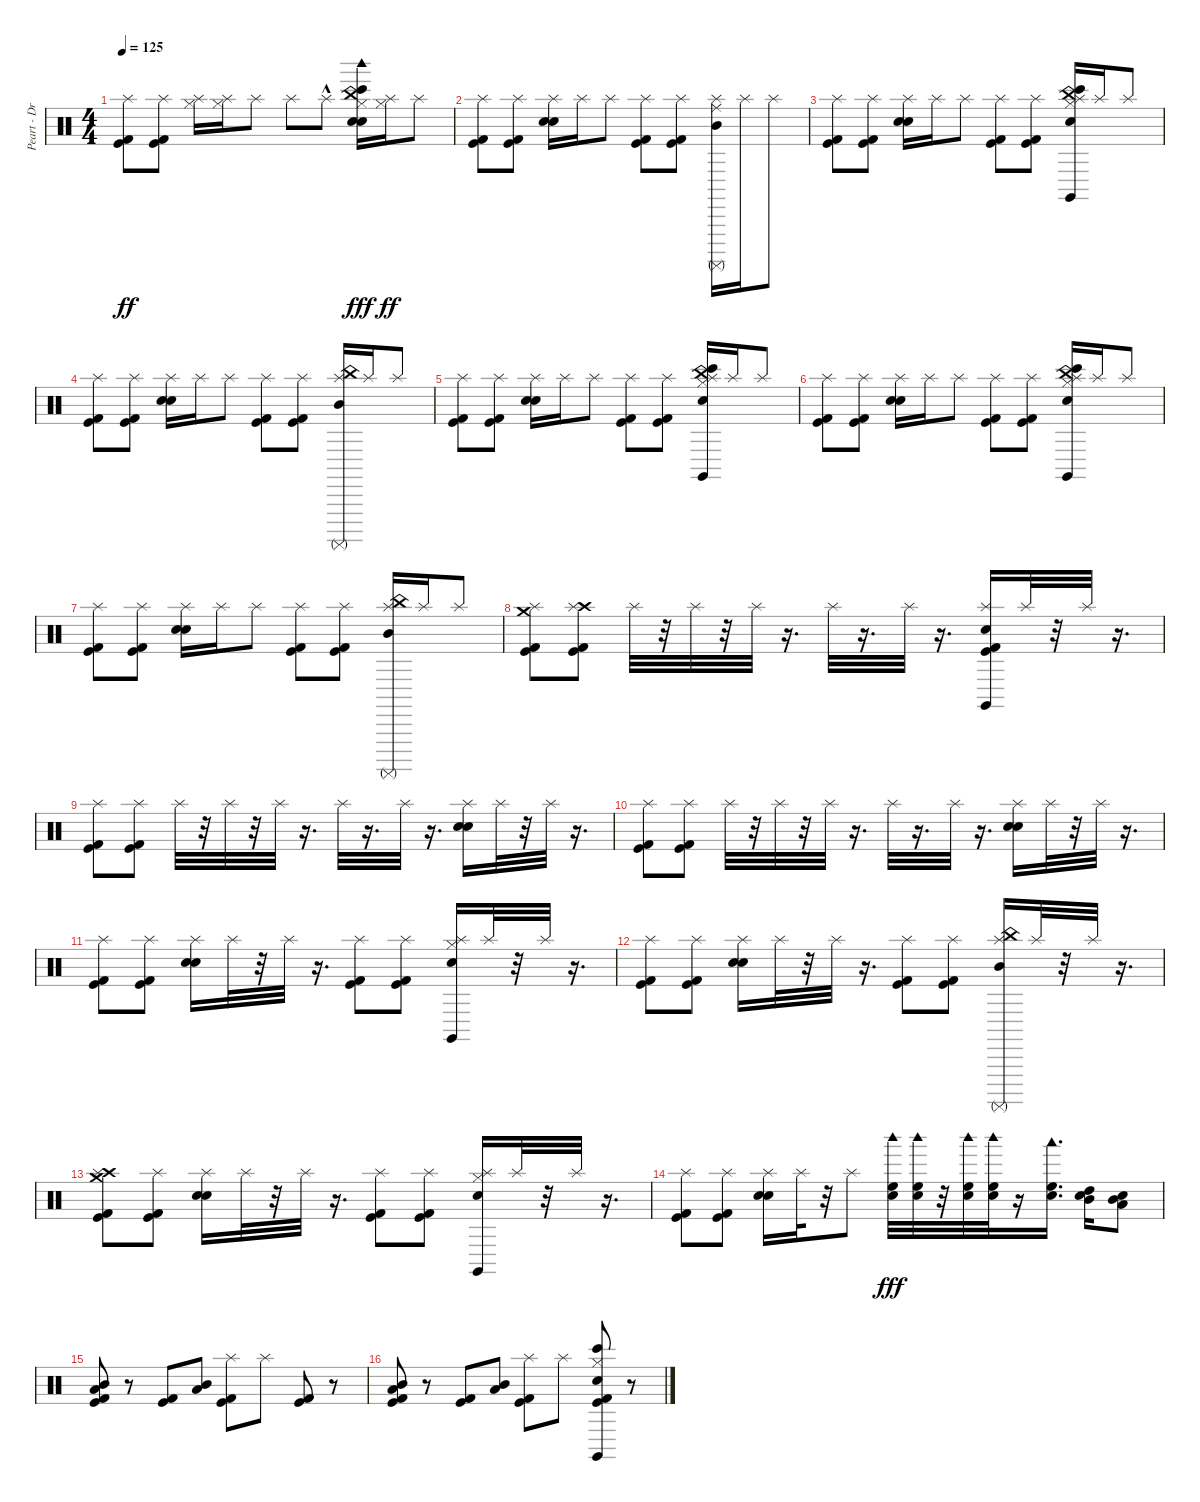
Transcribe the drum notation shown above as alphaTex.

\track ("Peart - Drums" "Peart - Dr") {instrument percussion}
\staff {score}
\articulation defaults
\ts (4 4)
\tempo 125
\clef neutral
\ks c
("Kick (hit) 2" "Kick (hit)" "Splash (hit)").8{dy ff} ("Kick (hit) 2" "Kick (hit)" "Splash (hit)").8 ("Hi-Hat (closed)" "Splash (hit)").16 ("Hi-Hat (closed)" "Splash (hit)").16 "Splash (hit)".8 "Splash (hit)".8 "Splash (hit)"{hac}.8 ("Hi-Hat (closed)" "Electric Snare (hit)" "China (hit)" "Woodblock high (hit)" "Bongo High (hit)" "Snare (hit) 2").16{dy fff} ("Hi-Hat (closed)" "Splash (hit)").16{dy ff} "Splash (hit)".8 |
("Kick (hit)" "Kick (hit) 2" "Splash (hit)").8 ("Kick (hit)" "Kick (hit) 2" "Splash (hit)").8 ("Snare (hit) 2" "Electric Snare (hit)" "Splash (hit)").16 "Splash (hit)".16 "Splash (hit)".8 ("Kick (hit) 2" "Kick (hit)" "Splash (hit)").8 ("Kick (hit) 2" "Kick (hit)" "Splash (hit)").8 ("Mid Tom (hit)" "Surdo (mute)" "Ride (middle)" "Splash (hit)").16 "Splash (hit)".16 "Splash (hit)".8 |
("Kick (hit) 2" "Kick (hit)" "Splash (hit)").8 ("Kick (hit) 2" "Kick (hit)" "Splash (hit)").8 ("Electric Snare (hit)" "Snare (hit) 2" "Splash (hit)").16 "Splash (hit)".16 "Splash (hit)".8 ("Kick (hit) 2" "Kick (hit)" "Splash (hit)").8 ("Kick (hit) 2" "Kick (hit)" "Splash (hit)").8 ("Electric Snare (hit)" "Hi-Hat (closed)" "China (hit)" "Bongo High (hit)" "Claves (hit)" "Splash (hit)").16 "Splash (hit)".16 "Splash (hit)".8 |
("Kick (hit) 2" "Kick (hit)" "Splash (hit)").8 ("Kick (hit)" "Kick (hit) 2" "Splash (hit)").8 ("Snare (hit) 2" "Electric Snare (hit)" "Splash (hit)").16 "Splash (hit)".16 "Splash (hit)".8 ("Kick (hit) 2" "Kick (hit)" "Splash (hit)").8 ("Kick (hit) 2" "Kick (hit)" "Splash (hit)").8 ("Mid Tom (hit)" "Surdo (mute)" "China (hit)" "Splash (hit)").16 "Splash (hit)".16 "Splash (hit)".8 |
("Kick (hit) 2" "Kick (hit)" "Splash (hit)").8 ("Kick (hit) 2" "Kick (hit)" "Splash (hit)").8 ("Electric Snare (hit)" "Snare (hit) 2" "Splash (hit)").16 "Splash (hit)".16 "Splash (hit)".8 ("Kick (hit) 2" "Kick (hit)" "Splash (hit)").8 ("Kick (hit) 2" "Kick (hit)" "Splash (hit)").8 ("Electric Snare (hit)" "Hi-Hat (closed)" "China (hit)" "Bongo High (hit)" "Claves (hit)" "Splash (hit)").16 "Splash (hit)".16 "Splash (hit)".8 |
("Kick (hit)" "Kick (hit) 2" "Splash (hit)").8 ("Kick (hit) 2" "Kick (hit)" "Splash (hit)").8 ("Electric Snare (hit)" "Snare (hit) 2" "Splash (hit)").16 "Splash (hit)".16 "Splash (hit)".8 ("Kick (hit) 2" "Kick (hit)" "Splash (hit)").8 ("Kick (hit) 2" "Kick (hit)" "Splash (hit)").8 ("Electric Snare (hit)" "Hi-Hat (closed)" "China (hit)" "Bongo High (hit)" "Claves (hit)" "Splash (hit)").16 "Splash (hit)".16 "Splash (hit)".8 |
("Kick (hit) 2" "Kick (hit)" "Splash (hit)").8 ("Kick (hit)" "Kick (hit) 2" "Splash (hit)").8 ("Snare (hit) 2" "Electric Snare (hit)" "Splash (hit)").16 "Splash (hit)".16 "Splash (hit)".8 ("Kick (hit) 2" "Kick (hit)" "Splash (hit)").8 ("Kick (hit) 2" "Kick (hit)" "Splash (hit)").8 ("Mid Tom (hit)" "Surdo (mute)" "China (hit)" "Splash (hit)").16 "Splash (hit)".16 "Splash (hit)".8 |
("Kick (hit) 2" "Kick (hit)" "Crash medium (hit)" "Splash (hit)").8 ("Kick (hit) 2" "Kick (hit)" "Crash high (hit)" "Splash (hit)").8 "Splash (hit)".32 r.32 "Splash (hit)".32 r.32 "Splash (hit)".32 r.16{d} "Splash (hit)".32 r.16{d} "Splash (hit)".32 r.16{d} ("Claves (hit)" "Kick (hit) 2" "Kick (hit)" "Electric Snare (hit)" "Splash (hit)").16 "Splash (hit)".32 r.32 "Splash (hit)".32 r.16{d} |
("Kick (hit) 2" "Kick (hit)" "Splash (hit)").8 ("Kick (hit) 2" "Kick (hit)" "Splash (hit)").8 "Splash (hit)".32 r.32 "Splash (hit)".32 r.32 "Splash (hit)".32 r.16{d} "Splash (hit)".32 r.16{d} "Splash (hit)".32 r.16{d} ("Electric Snare (hit)" "Snare (hit) 2" "Splash (hit)").16 "Splash (hit)".32 r.32 "Splash (hit)".32 r.16{d} |
("Kick (hit) 2" "Kick (hit)" "Splash (hit)").8 ("Kick (hit) 2" "Kick (hit)" "Splash (hit)").8 "Splash (hit)".32 r.32 "Splash (hit)".32 r.32 "Splash (hit)".32 r.16{d} "Splash (hit)".32 r.16{d} "Splash (hit)".32 r.16{d} ("Electric Snare (hit)" "Snare (hit) 2" "Splash (hit)").16 "Splash (hit)".32 r.32 "Splash (hit)".32 r.16{d} |
("Kick (hit) 2" "Kick (hit)" "Splash (hit)").8 ("Kick (hit) 2" "Kick (hit)" "Splash (hit)").8 ("Electric Snare (hit)" "Snare (hit) 2" "Splash (hit)").16 "Splash (hit)".32 r.32 "Splash (hit)".32 r.16{d} ("Kick (hit) 2" "Kick (hit)" "Splash (hit)").8 ("Kick (hit) 2" "Kick (hit)" "Splash (hit)").8 ("Electric Snare (hit)" "Hi-Hat (closed)" "Claves (hit)" "Splash (hit)").16 "Splash (hit)".32 r.32 "Splash (hit)".32 r.16{d} |
("Kick (hit)" "Kick (hit) 2" "Splash (hit)").8 ("Kick (hit) 2" "Kick (hit)" "Splash (hit)").8 ("Snare (hit) 2" "Electric Snare (hit)" "Splash (hit)").16 "Splash (hit)".32 r.32 "Splash (hit)".32 r.16{d} ("Kick (hit)" "Kick (hit) 2" "Splash (hit)").8 ("Kick (hit) 2" "Kick (hit)" "Splash (hit)").8 ("Surdo (mute)" "Mid Tom (hit)" "China (hit)" "Splash (hit)").16 "Splash (hit)".32 r.32 "Splash (hit)".32 r.16{d} |
("Kick (hit)" "Kick (hit) 2" "Crash medium (hit)" "Crash high (hit)" "Splash (hit)").8 ("Kick (hit) 2" "Kick (hit)" "Splash (hit)").8 ("Electric Snare (hit)" "Snare (hit) 2" "Splash (hit)").16 "Splash (hit)".32 r.32 "Splash (hit)".32 r.16{d} ("Kick (hit) 2" "Kick (hit)" "Splash (hit)").8 ("Kick (hit) 2" "Kick (hit)" "Splash (hit)").8 ("Electric Snare (hit)" "Hi-Hat (closed)" "Claves (hit)" "Splash (hit)").16 "Splash (hit)".32 r.32 "Splash (hit)".32 r.16{d} |
("Kick (hit)" "Kick (hit) 2" "Splash (hit)").8 ("Kick (hit) 2" "Kick (hit)" "Splash (hit)").8 ("Snare (hit) 2" "Electric Snare (hit)" "Splash (hit)").16 "Splash (hit)".32 r.32 "Splash (hit)".8 ("Woodblock high (hit)" "High Floor Tom (hit)" "Electric Snare (hit)").32{dy fff} ("Woodblock high (hit)" "High Floor Tom (hit)" "Electric Snare (hit)").32 r.32 ("Woodblock high (hit)" "High Floor Tom (hit)" "Electric Snare (hit)").32 ("Woodblock high (hit)" "High Floor Tom (hit)" "Electric Snare (hit)").32 r.16 ("Woodblock low (hit)" "High Floor Tom (hit)" "Electric Snare (hit)").16{d} ("High Tom (hit)" "Snare (hit) 2" "Mid Tom (hit)").16 ("Mid Tom (hit)" "Snare (hit) 2" "Low Tom (hit)").8 |
("Kick (hit) 2" "Low Tom (hit)" "Kick (hit)" "Mid Tom (hit)").8 r.8 ("Kick (hit) 2" "Kick (hit)").8 ("Low Tom (hit)" "Mid Tom (hit)").8 ("Kick (hit) 2" "Splash (hit)" "Kick (hit)").8 "Splash (hit)".8 ("Kick (hit) 2" "Kick (hit)").8 r.8 |
("Kick (hit) 2" "Low Tom (hit)" "Kick (hit)" "Mid Tom (hit)").8 r.8 ("Kick (hit) 2" "Kick (hit)").8 ("Low Tom (hit)" "Mid Tom (hit)").8 ("Kick (hit) 2" "Splash (hit)" "Kick (hit)").8 "Splash (hit)".8 ("Kick (hit) 2" "Kick (hit)" "Bongo High (hit)" "Claves (hit)" "Hi-Hat (closed)" "Hand Clap (hit)").8 r.8
